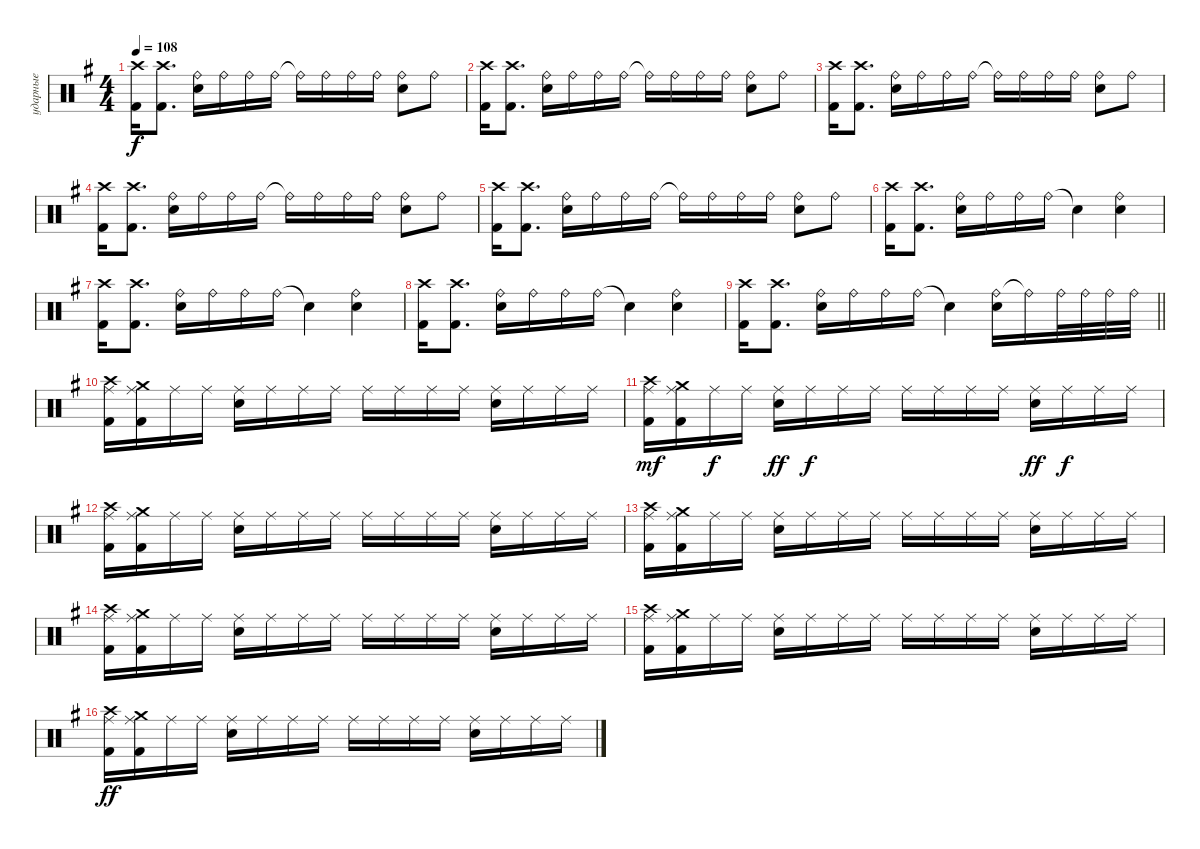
\track ("ударные" "ударные") {instrument percussion}
\staff {score}
\articulation defaults
\ts (4 4)
\tempo 108
\clef neutral
\ks eminor
("Crash high (hit)" "Kick (hit) 2").16{dy f} ("Crash high (hit)" "Kick (hit) 2").8{d} ("Ride (bell)" "Snare (hit) 2").16 "Ride (bell)".16 "Ride (bell)".16 "Ride (bell)".16 "Ride (bell)"{t}.16 "Ride (bell)".16 "Ride (bell)".16 "Ride (bell)".16 ("Ride (bell)" "Snare (hit) 2").8 "Ride (bell)".8 |
("Crash high (hit)" "Kick (hit) 2").16 ("Crash high (hit)" "Kick (hit) 2").8{d} ("Ride (bell)" "Snare (hit) 2").16 "Ride (bell)".16 "Ride (bell)".16 "Ride (bell)".16 "Ride (bell)"{t}.16 "Ride (bell)".16 "Ride (bell)".16 "Ride (bell)".16 ("Ride (bell)" "Snare (hit) 2").8 "Ride (bell)".8 |
("Crash high (hit)" "Kick (hit) 2").16 ("Crash high (hit)" "Kick (hit) 2").8{d} ("Ride (bell)" "Snare (hit) 2").16 "Ride (bell)".16 "Ride (bell)".16 "Ride (bell)".16 "Ride (bell)"{t}.16 "Ride (bell)".16 "Ride (bell)".16 "Ride (bell)".16 ("Ride (bell)" "Snare (hit) 2").8 "Ride (bell)".8 |
("Crash high (hit)" "Kick (hit) 2").16 ("Crash high (hit)" "Kick (hit) 2").8{d} ("Ride (bell)" "Snare (hit) 2").16 "Ride (bell)".16 "Ride (bell)".16 "Ride (bell)".16 "Ride (bell)"{t}.16 "Ride (bell)".16 "Ride (bell)".16 "Ride (bell)".16 ("Ride (bell)" "Snare (hit) 2").8 "Ride (bell)".8 |
("Crash high (hit)" "Kick (hit) 2").16 ("Crash high (hit)" "Kick (hit) 2").8{d} ("Ride (bell)" "Snare (hit) 2").16 "Ride (bell)".16 "Ride (bell)".16 "Ride (bell)".16 "Ride (bell)"{t}.16 "Ride (bell)".16 "Ride (bell)".16 "Ride (bell)".16 ("Ride (bell)" "Snare (hit) 2").8 "Ride (bell)".8 |
("Crash high (hit)" "Kick (hit) 2").16 ("Crash high (hit)" "Kick (hit) 2").8{d} ("Ride (bell)" "Snare (hit) 2").16 "Ride (bell)".16 "Ride (bell)".16 "Ride (bell)".16 "Snare (hit)"{t}.4 ("Ride (bell)" "Snare (hit) 2").4 |
("Crash high (hit)" "Kick (hit) 2").16 ("Crash high (hit)" "Kick (hit) 2").8{d} ("Ride (bell)" "Snare (hit) 2").16 "Ride (bell)".16 "Ride (bell)".16 "Ride (bell)".16 "Snare (hit)"{t}.4 ("Ride (bell)" "Snare (hit) 2").4 |
("Crash high (hit)" "Kick (hit) 2").16 ("Crash high (hit)" "Kick (hit) 2").8{d} ("Ride (bell)" "Snare (hit) 2").16 "Ride (bell)".16 "Ride (bell)".16 "Ride (bell)".16 "Snare (hit)"{t}.4 ("Ride (bell)" "Snare (hit) 2").4 |
\barLineRight lightlight
("Crash high (hit)" "Kick (hit) 2").16 ("Crash high (hit)" "Kick (hit) 2").8{d} ("Ride (bell)" "Snare (hit) 2").16 "Ride (bell)".16 "Ride (bell)".16 "Ride (bell)".16 "Snare (hit)"{t}.4 ("Ride (bell)" "Snare (hit) 2").16 "Ride (bell)"{t}.16 "Ride (bell)".32 "Ride (bell)".32 "Ride (bell)".32 "Ride (bell)".32 |
("Crash high (hit)" "Ride (middle)" "Kick (hit) 2").16 ("Crash medium (hit)" "Ride (middle)" "Kick (hit) 2").16 "Ride (middle)".16 "Ride (middle)".16 ("Ride (middle)" "Snare (hit) 2").16 "Ride (middle)".16 "Ride (middle)".16 "Ride (middle)".16 "Ride (middle)".16 "Ride (middle)".16 "Ride (middle)".16 "Ride (middle)".16 ("Ride (middle)" "Snare (hit) 2").16 "Ride (middle)".16 "Ride (middle)".16 "Ride (middle)".16 |
("Crash high (hit)" "Ride (middle)" "Kick (hit) 2").16{dy mf} ("Crash medium (hit)" "Ride (middle)" "Kick (hit) 2").16 "Ride (middle)".16{dy f} "Ride (middle)".16 ("Ride (middle)" "Snare (hit) 2").16{dy ff} "Ride (middle)".16{dy f} "Ride (middle)".16 "Ride (middle)".16 "Ride (middle)".16 "Ride (middle)".16 "Ride (middle)".16 "Ride (middle)".16 ("Ride (middle)" "Snare (hit) 2").16{dy ff} "Ride (middle)".16{dy f} "Ride (middle)".16 "Ride (middle)".16 |
("Crash high (hit)" "Ride (middle)" "Kick (hit) 2").16 ("Crash medium (hit)" "Ride (middle)" "Kick (hit) 2").16 "Ride (middle)".16 "Ride (middle)".16 ("Ride (middle)" "Snare (hit) 2").16 "Ride (middle)".16 "Ride (middle)".16 "Ride (middle)".16 "Ride (middle)".16 "Ride (middle)".16 "Ride (middle)".16 "Ride (middle)".16 ("Ride (middle)" "Snare (hit) 2").16 "Ride (middle)".16 "Ride (middle)".16 "Ride (middle)".16 |
("Crash high (hit)" "Ride (middle)" "Kick (hit) 2").16 ("Crash medium (hit)" "Ride (middle)" "Kick (hit) 2").16 "Ride (middle)".16 "Ride (middle)".16 ("Ride (middle)" "Snare (hit) 2").16 "Ride (middle)".16 "Ride (middle)".16 "Ride (middle)".16 "Ride (middle)".16 "Ride (middle)".16 "Ride (middle)".16 "Ride (middle)".16 ("Ride (middle)" "Snare (hit) 2").16 "Ride (middle)".16 "Ride (middle)".16 "Ride (middle)".16 |
("Crash high (hit)" "Ride (middle)" "Kick (hit) 2").16 ("Crash medium (hit)" "Ride (middle)" "Kick (hit) 2").16 "Ride (middle)".16 "Ride (middle)".16 ("Ride (middle)" "Snare (hit) 2").16 "Ride (middle)".16 "Ride (middle)".16 "Ride (middle)".16 "Ride (middle)".16 "Ride (middle)".16 "Ride (middle)".16 "Ride (middle)".16 ("Ride (middle)" "Snare (hit) 2").16 "Ride (middle)".16 "Ride (middle)".16 "Ride (middle)".16 |
("Crash high (hit)" "Ride (middle)" "Kick (hit) 2").16 ("Crash medium (hit)" "Ride (middle)" "Kick (hit) 2").16 "Ride (middle)".16 "Ride (middle)".16 ("Ride (middle)" "Snare (hit) 2").16 "Ride (middle)".16 "Ride (middle)".16 "Ride (middle)".16 "Ride (middle)".16 "Ride (middle)".16 "Ride (middle)".16 "Ride (middle)".16 ("Ride (middle)" "Snare (hit) 2").16 "Ride (middle)".16 "Ride (middle)".16 "Ride (middle)".16 |
("Crash high (hit)" "Ride (middle)" "Kick (hit) 2").16{dy ff} ("Crash medium (hit)" "Ride (middle)" "Kick (hit) 2").16 "Ride (middle)".16 "Ride (middle)".16 ("Ride (middle)" "Snare (hit) 2").16 "Ride (middle)".16 "Ride (middle)".16 "Ride (middle)".16 "Ride (middle)".16 "Ride (middle)".16 "Ride (middle)".16 "Ride (middle)".16 ("Ride (middle)" "Snare (hit) 2").16 "Ride (middle)".16 "Ride (middle)".16 "Ride (middle)".16
